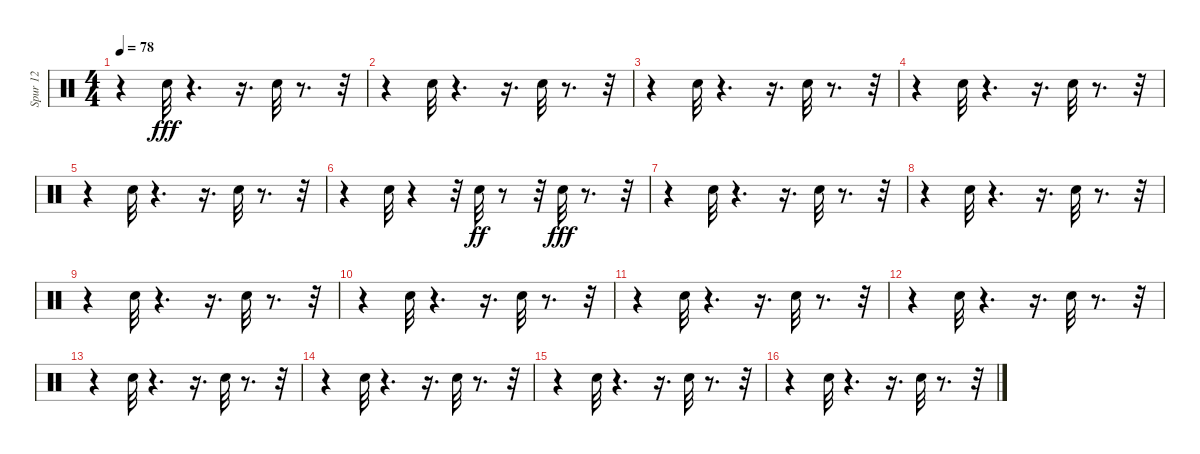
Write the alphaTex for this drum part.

\track ("Spur 12" "Spur 12") {instrument percussion}
\staff {score}
\articulation defaults
\ts (4 4)
\tempo 78
\clef neutral
\ks c
r.4{dy fff} "Electric Snare (hit)".32 r.4{d} r.16{d} "Electric Snare (hit)".32 r.8{d} r.32 |
r.4 "Electric Snare (hit)".32 r.4{d} r.16{d} "Electric Snare (hit)".32 r.8{d} r.32 |
r.4 "Electric Snare (hit)".32 r.4{d} r.16{d} "Electric Snare (hit)".32 r.8{d} r.32 |
r.4 "Electric Snare (hit)".32 r.4{d} r.16{d} "Electric Snare (hit)".32 r.8{d} r.32 |
r.4 "Electric Snare (hit)".32 r.4{d} r.16{d} "Electric Snare (hit)".32 r.8{d} r.32 |
r.4 "Electric Snare (hit)".32 r.4 r.32 "Electric Snare (hit)".32{dy ff} r.8 r.32 "Electric Snare (hit)".32{dy fff} r.8{d} r.32 |
r.4 "Electric Snare (hit)".32 r.4{d} r.16{d} "Electric Snare (hit)".32 r.8{d} r.32 |
r.4 "Electric Snare (hit)".32 r.4{d} r.16{d} "Electric Snare (hit)".32 r.8{d} r.32 |
r.4 "Electric Snare (hit)".32 r.4{d} r.16{d} "Electric Snare (hit)".32 r.8{d} r.32 |
r.4 "Electric Snare (hit)".32 r.4{d} r.16{d} "Electric Snare (hit)".32 r.8{d} r.32 |
r.4 "Electric Snare (hit)".32 r.4{d} r.16{d} "Electric Snare (hit)".32 r.8{d} r.32 |
r.4 "Electric Snare (hit)".32 r.4{d} r.16{d} "Electric Snare (hit)".32 r.8{d} r.32 |
r.4 "Electric Snare (hit)".32 r.4{d} r.16{d} "Electric Snare (hit)".32 r.8{d} r.32 |
r.4 "Electric Snare (hit)".32 r.4{d} r.16{d} "Electric Snare (hit)".32 r.8{d} r.32 |
r.4 "Electric Snare (hit)".32 r.4{d} r.16{d} "Electric Snare (hit)".32 r.8{d} r.32 |
r.4 "Electric Snare (hit)".32 r.4{d} r.16{d} "Electric Snare (hit)".32 r.8{d} r.32
